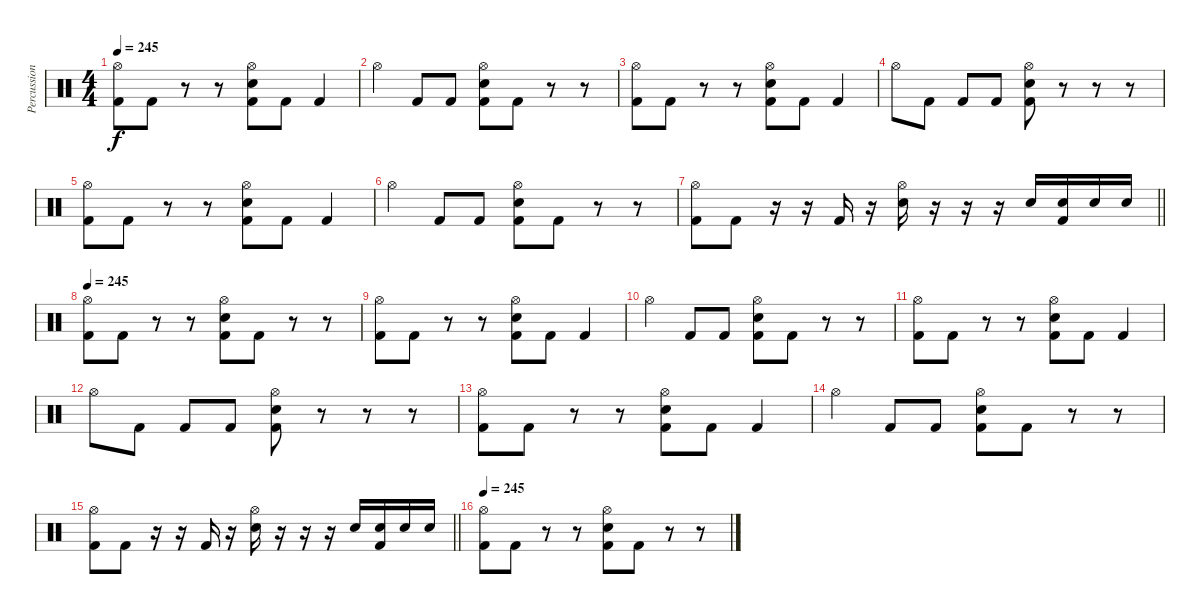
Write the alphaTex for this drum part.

\track ("Percussion" "Percussion") {instrument percussion}
\staff {score}
\articulation defaults
\ts (4 4)
\tempo 245
\clef neutral
\ks c
("Hi-Hat (open)" "Kick (hit) 2").8{dy f} "Kick (hit) 2".8 r.8 r.8 ("Hi-Hat (open)" "Electric Snare (hit)" "Kick (hit) 2").8 "Kick (hit) 2".8 "Kick (hit) 2".4 |
"Hi-Hat (open)".4 "Kick (hit) 2".8 "Kick (hit) 2".8 ("Hi-Hat (open)" "Electric Snare (hit)" "Kick (hit) 2").8 "Kick (hit) 2".8 r.8 r.8 |
("Hi-Hat (open)" "Kick (hit) 2").8 "Kick (hit) 2".8 r.8 r.8 ("Hi-Hat (open)" "Electric Snare (hit)" "Kick (hit) 2").8 "Kick (hit) 2".8 "Kick (hit) 2".4 |
"Hi-Hat (open)".8 "Kick (hit) 2".8 "Kick (hit) 2".8 "Kick (hit) 2".8 ("Hi-Hat (open)" "Electric Snare (hit)" "Kick (hit) 2").8 r.8 r.8 r.8 |
("Hi-Hat (open)" "Kick (hit) 2").8 "Kick (hit) 2".8 r.8 r.8 ("Hi-Hat (open)" "Electric Snare (hit)" "Kick (hit) 2").8 "Kick (hit) 2".8 "Kick (hit) 2".4 |
"Hi-Hat (open)".4 "Kick (hit) 2".8 "Kick (hit) 2".8 ("Hi-Hat (open)" "Electric Snare (hit)" "Kick (hit) 2").8 "Kick (hit) 2".8 r.8 r.8 |
\barLineRight lightlight
("Hi-Hat (open)" "Kick (hit) 2").8 "Kick (hit) 2".8 r.16 r.16 "Kick (hit) 2".16 r.16 ("Hi-Hat (open)" "Electric Snare (hit)").16 r.16 r.16 r.16 "Electric Snare (hit)".16 ("Electric Snare (hit)" "Kick (hit) 2").16 "Electric Snare (hit)".16 "Electric Snare (hit)".16 |
\tempo 245
("Hi-Hat (open)" "Kick (hit) 2").8 "Kick (hit) 2".8 r.8 r.8 ("Hi-Hat (open)" "Electric Snare (hit)" "Kick (hit) 2").8 "Kick (hit) 2".8 r.8 r.8 |
("Hi-Hat (open)" "Kick (hit) 2").8 "Kick (hit) 2".8 r.8 r.8 ("Hi-Hat (open)" "Electric Snare (hit)" "Kick (hit) 2").8 "Kick (hit) 2".8 "Kick (hit) 2".4 |
"Hi-Hat (open)".4 "Kick (hit) 2".8 "Kick (hit) 2".8 ("Hi-Hat (open)" "Electric Snare (hit)" "Kick (hit) 2").8 "Kick (hit) 2".8 r.8 r.8 |
("Hi-Hat (open)" "Kick (hit) 2").8 "Kick (hit) 2".8 r.8 r.8 ("Hi-Hat (open)" "Electric Snare (hit)" "Kick (hit) 2").8 "Kick (hit) 2".8 "Kick (hit) 2".4 |
"Hi-Hat (open)".8 "Kick (hit) 2".8 "Kick (hit) 2".8 "Kick (hit) 2".8 ("Hi-Hat (open)" "Electric Snare (hit)" "Kick (hit) 2").8 r.8 r.8 r.8 |
("Hi-Hat (open)" "Kick (hit) 2").8 "Kick (hit) 2".8 r.8 r.8 ("Hi-Hat (open)" "Electric Snare (hit)" "Kick (hit) 2").8 "Kick (hit) 2".8 "Kick (hit) 2".4 |
"Hi-Hat (open)".4 "Kick (hit) 2".8 "Kick (hit) 2".8 ("Hi-Hat (open)" "Electric Snare (hit)" "Kick (hit) 2").8 "Kick (hit) 2".8 r.8 r.8 |
\barLineRight lightlight
("Hi-Hat (open)" "Kick (hit) 2").8 "Kick (hit) 2".8 r.16 r.16 "Kick (hit) 2".16 r.16 ("Hi-Hat (open)" "Electric Snare (hit)").16 r.16 r.16 r.16 "Electric Snare (hit)".16 ("Electric Snare (hit)" "Kick (hit) 2").16 "Electric Snare (hit)".16 "Electric Snare (hit)".16 |
\tempo 245
("Hi-Hat (open)" "Kick (hit) 2").8 "Kick (hit) 2".8 r.8 r.8 ("Hi-Hat (open)" "Electric Snare (hit)" "Kick (hit) 2").8 "Kick (hit) 2".8 r.8 r.8
